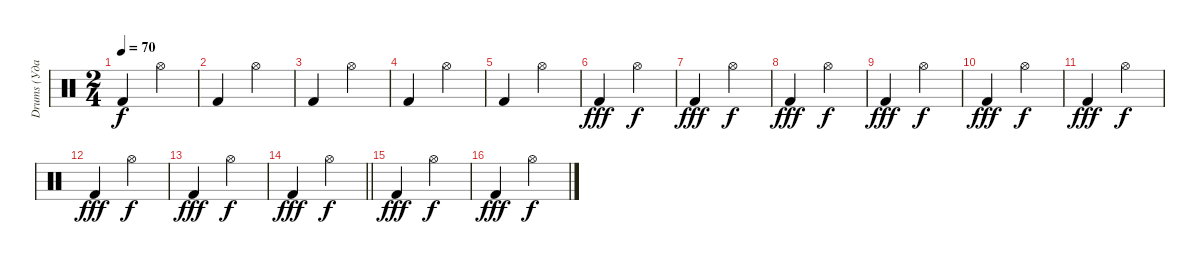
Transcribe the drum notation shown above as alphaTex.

\track ("Drums (Ударные)" "Drums (Уда") {instrument percussion}
\staff {score}
\articulation defaults
\ts (2 4)
\tempo 70
\clef neutral
\ks c "Kick (hit) 2".4{dy f} "Hi-Hat (open)".4
|
"Kick (hit) 2".4 "Hi-Hat (open)".4 |
"Kick (hit) 2".4 "Hi-Hat (open)".4 |
"Kick (hit) 2".4 "Hi-Hat (open)".4 |
"Kick (hit) 2".4 "Hi-Hat (open)".4 |
"Kick (hit) 2".4{dy fff} "Hi-Hat (open)".4{dy f} |
"Kick (hit) 2".4{dy fff} "Hi-Hat (open)".4{dy f} |
"Kick (hit) 2".4{dy fff} "Hi-Hat (open)".4{dy f} |
"Kick (hit) 2".4{dy fff} "Hi-Hat (open)".4{dy f} |
"Kick (hit) 2".4{dy fff} "Hi-Hat (open)".4{dy f} |
"Kick (hit) 2".4{dy fff} "Hi-Hat (open)".4{dy f} |
"Kick (hit) 2".4{dy fff} "Hi-Hat (open)".4{dy f} |
"Kick (hit) 2".4{dy fff} "Hi-Hat (open)".4{dy f} |
\barLineRight lightlight "Kick (hit) 2".4{dy fff} "Hi-Hat (open)".4{dy f}
|
"Kick (hit) 2".4{dy fff} "Hi-Hat (open)".4{dy f} |
"Kick (hit) 2".4{dy fff} "Hi-Hat (open)".4{dy f}
